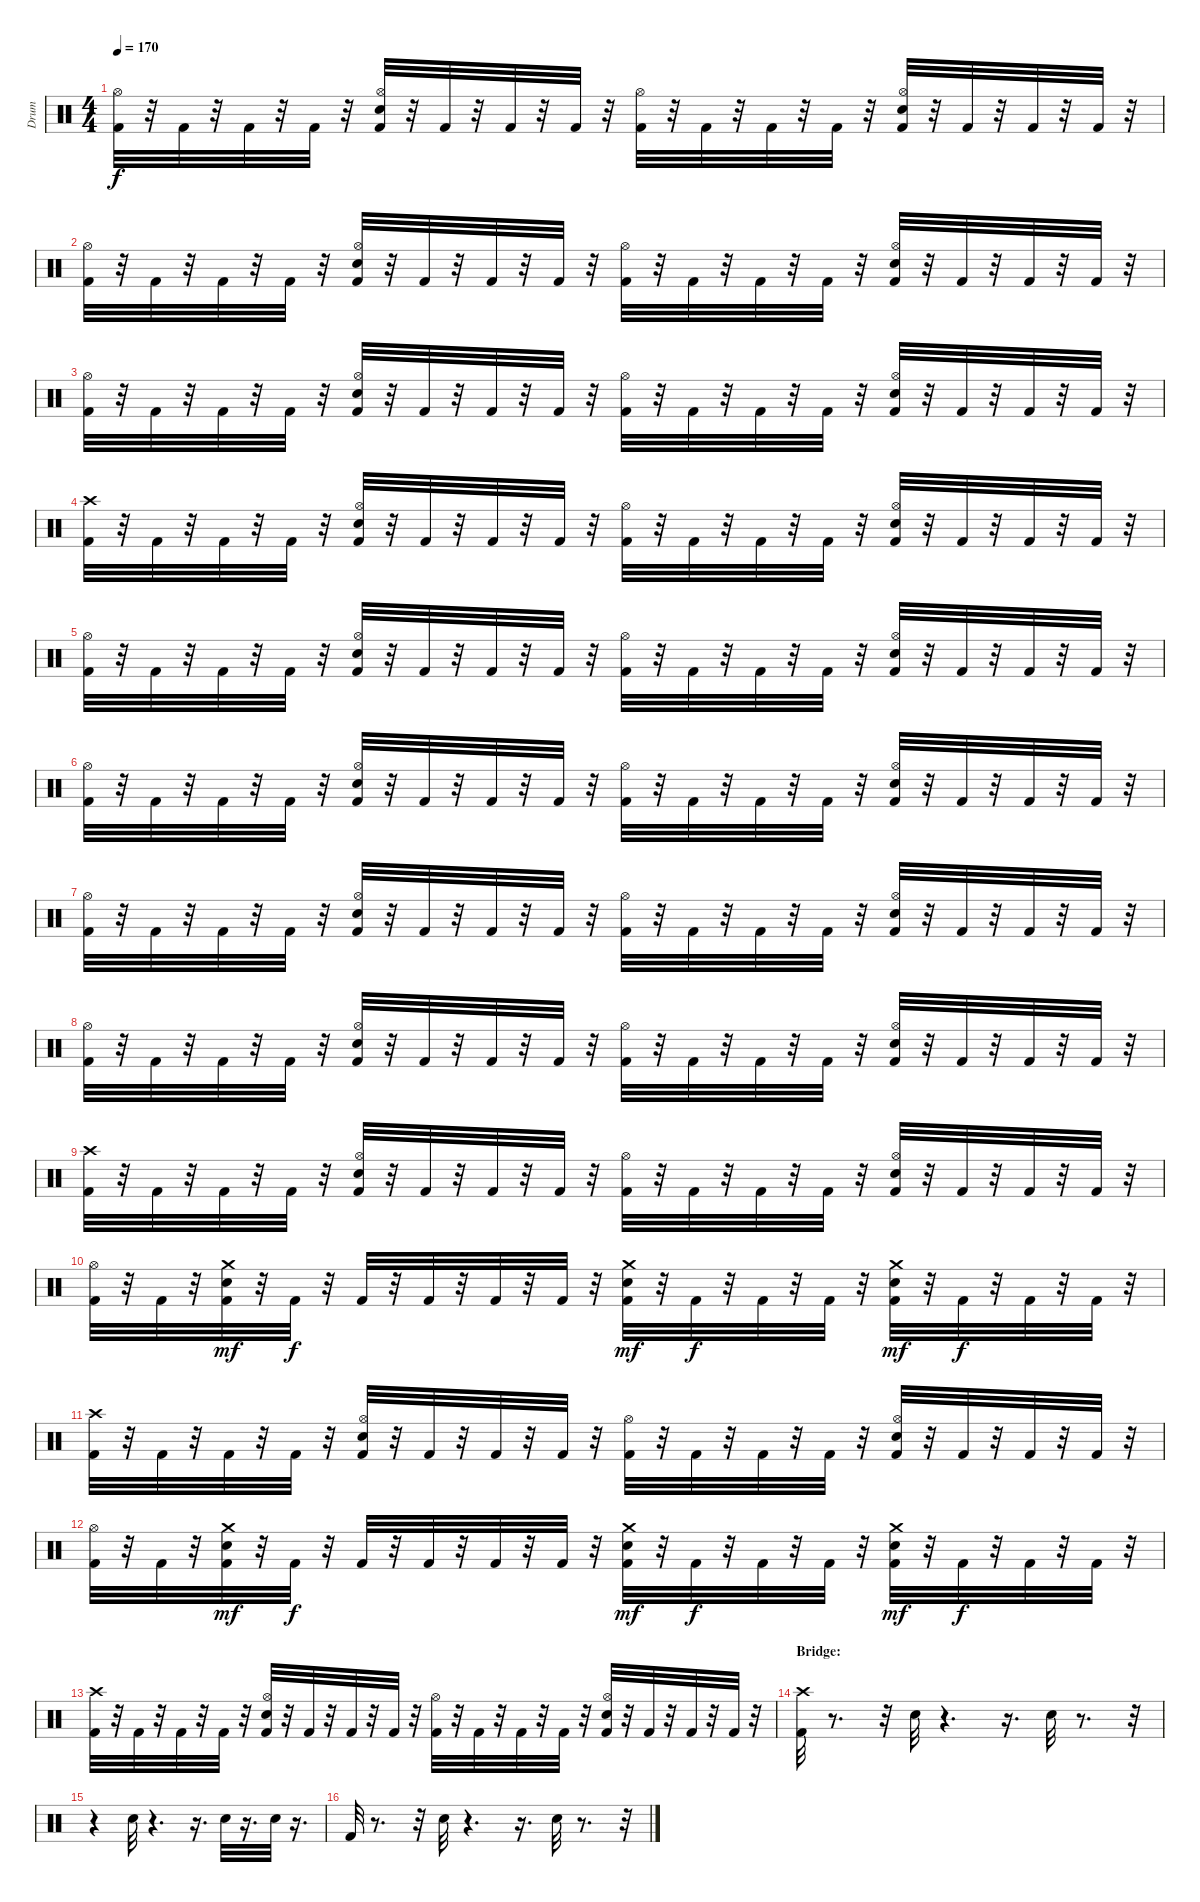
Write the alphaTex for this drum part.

\track ("Drum" "Drum") {instrument percussion}
\staff {score}
\articulation defaults
\ts (4 4)
\tempo 170
\clef neutral
\ks c
("Kick (hit) 2" "Hi-Hat (open)").32{dy f} r.32 "Kick (hit) 2".32 r.32 "Kick (hit) 2".32 r.32 "Kick (hit) 2".32 r.32 ("Kick (hit) 2" "Snare (hit) 2" "Hi-Hat (open)").32 r.32 "Kick (hit) 2".32 r.32 "Kick (hit) 2".32 r.32 "Kick (hit) 2".32 r.32 ("Kick (hit) 2" "Hi-Hat (open)").32 r.32 "Kick (hit) 2".32 r.32 "Kick (hit) 2".32 r.32 "Kick (hit) 2".32 r.32 ("Kick (hit) 2" "Snare (hit) 2" "Hi-Hat (open)").32 r.32 "Kick (hit) 2".32 r.32 "Kick (hit) 2".32 r.32 "Kick (hit) 2".32 r.32 |
("Kick (hit) 2" "Hi-Hat (open)").32 r.32 "Kick (hit) 2".32 r.32 "Kick (hit) 2".32 r.32 "Kick (hit) 2".32 r.32 ("Kick (hit) 2" "Hi-Hat (open)" "Snare (hit) 2").32 r.32 "Kick (hit) 2".32 r.32 "Kick (hit) 2".32 r.32 "Kick (hit) 2".32 r.32 ("Kick (hit) 2" "Hi-Hat (open)").32 r.32 "Kick (hit) 2".32 r.32 "Kick (hit) 2".32 r.32 "Kick (hit) 2".32 r.32 ("Kick (hit) 2" "Hi-Hat (open)" "Snare (hit) 2").32 r.32 "Kick (hit) 2".32 r.32 "Kick (hit) 2".32 r.32 "Kick (hit) 2".32 r.32 |
("Kick (hit) 2" "Hi-Hat (open)").32 r.32 "Kick (hit) 2".32 r.32 "Kick (hit) 2".32 r.32 "Kick (hit) 2".32 r.32 ("Kick (hit) 2" "Snare (hit) 2" "Hi-Hat (open)").32 r.32 "Kick (hit) 2".32 r.32 "Kick (hit) 2".32 r.32 "Kick (hit) 2".32 r.32 ("Kick (hit) 2" "Hi-Hat (open)").32 r.32 "Kick (hit) 2".32 r.32 "Kick (hit) 2".32 r.32 "Kick (hit) 2".32 r.32 ("Kick (hit) 2" "Snare (hit) 2" "Hi-Hat (open)").32 r.32 "Kick (hit) 2".32 r.32 "Kick (hit) 2".32 r.32 "Kick (hit) 2".32 r.32 |
("Kick (hit) 2" "Crash high (hit)").32 r.32 "Kick (hit) 2".32 r.32 "Kick (hit) 2".32 r.32 "Kick (hit) 2".32 r.32 ("Kick (hit) 2" "Snare (hit) 2" "Hi-Hat (open)").32 r.32 "Kick (hit) 2".32 r.32 "Kick (hit) 2".32 r.32 "Kick (hit) 2".32 r.32 ("Kick (hit) 2" "Hi-Hat (open)").32 r.32 "Kick (hit) 2".32 r.32 "Kick (hit) 2".32 r.32 "Kick (hit) 2".32 r.32 ("Kick (hit) 2" "Snare (hit) 2" "Hi-Hat (open)").32 r.32 "Kick (hit) 2".32 r.32 "Kick (hit) 2".32 r.32 "Kick (hit) 2".32 r.32 |
("Kick (hit) 2" "Hi-Hat (open)").32 r.32 "Kick (hit) 2".32 r.32 "Kick (hit) 2".32 r.32 "Kick (hit) 2".32 r.32 ("Kick (hit) 2" "Hi-Hat (open)" "Snare (hit) 2").32 r.32 "Kick (hit) 2".32 r.32 "Kick (hit) 2".32 r.32 "Kick (hit) 2".32 r.32 ("Kick (hit) 2" "Hi-Hat (open)").32 r.32 "Kick (hit) 2".32 r.32 "Kick (hit) 2".32 r.32 "Kick (hit) 2".32 r.32 ("Kick (hit) 2" "Hi-Hat (open)" "Snare (hit) 2").32 r.32 "Kick (hit) 2".32 r.32 "Kick (hit) 2".32 r.32 "Kick (hit) 2".32 r.32 |
("Kick (hit) 2" "Hi-Hat (open)").32 r.32 "Kick (hit) 2".32 r.32 "Kick (hit) 2".32 r.32 "Kick (hit) 2".32 r.32 ("Kick (hit) 2" "Hi-Hat (open)" "Snare (hit) 2").32 r.32 "Kick (hit) 2".32 r.32 "Kick (hit) 2".32 r.32 "Kick (hit) 2".32 r.32 ("Kick (hit) 2" "Hi-Hat (open)").32 r.32 "Kick (hit) 2".32 r.32 "Kick (hit) 2".32 r.32 "Kick (hit) 2".32 r.32 ("Kick (hit) 2" "Hi-Hat (open)" "Snare (hit) 2").32 r.32 "Kick (hit) 2".32 r.32 "Kick (hit) 2".32 r.32 "Kick (hit) 2".32 r.32 |
("Kick (hit) 2" "Hi-Hat (open)").32 r.32 "Kick (hit) 2".32 r.32 "Kick (hit) 2".32 r.32 "Kick (hit) 2".32 r.32 ("Kick (hit) 2" "Snare (hit) 2" "Hi-Hat (open)").32 r.32 "Kick (hit) 2".32 r.32 "Kick (hit) 2".32 r.32 "Kick (hit) 2".32 r.32 ("Kick (hit) 2" "Hi-Hat (open)").32 r.32 "Kick (hit) 2".32 r.32 "Kick (hit) 2".32 r.32 "Kick (hit) 2".32 r.32 ("Kick (hit) 2" "Snare (hit) 2" "Hi-Hat (open)").32 r.32 "Kick (hit) 2".32 r.32 "Kick (hit) 2".32 r.32 "Kick (hit) 2".32 r.32 |
("Kick (hit) 2" "Hi-Hat (open)").32 r.32 "Kick (hit) 2".32 r.32 "Kick (hit) 2".32 r.32 "Kick (hit) 2".32 r.32 ("Kick (hit) 2" "Snare (hit) 2" "Hi-Hat (open)").32 r.32 "Kick (hit) 2".32 r.32 "Kick (hit) 2".32 r.32 "Kick (hit) 2".32 r.32 ("Kick (hit) 2" "Hi-Hat (open)").32 r.32 "Kick (hit) 2".32 r.32 "Kick (hit) 2".32 r.32 "Kick (hit) 2".32 r.32 ("Kick (hit) 2" "Snare (hit) 2" "Hi-Hat (open)").32 r.32 "Kick (hit) 2".32 r.32 "Kick (hit) 2".32 r.32 "Kick (hit) 2".32 r.32 |
("Kick (hit) 2" "Crash high (hit)").32 r.32 "Kick (hit) 2".32 r.32 "Kick (hit) 2".32 r.32 "Kick (hit) 2".32 r.32 ("Kick (hit) 2" "Hi-Hat (open)" "Snare (hit) 2").32 r.32 "Kick (hit) 2".32 r.32 "Kick (hit) 2".32 r.32 "Kick (hit) 2".32 r.32 ("Kick (hit) 2" "Hi-Hat (open)").32 r.32 "Kick (hit) 2".32 r.32 "Kick (hit) 2".32 r.32 "Kick (hit) 2".32 r.32 ("Kick (hit) 2" "Hi-Hat (open)" "Snare (hit) 2").32 r.32 "Kick (hit) 2".32 r.32 "Kick (hit) 2".32 r.32 "Kick (hit) 2".32 r.32 |
("Kick (hit) 2" "Hi-Hat (open)").32 r.32 "Kick (hit) 2".32 r.32 ("Crash medium (hit)" "Snare (hit) 2" "Kick (hit) 2").32{dy mf} r.32 "Kick (hit) 2".32{dy f} r.32 "Kick (hit) 2".32 r.32 "Kick (hit) 2".32 r.32 "Kick (hit) 2".32 r.32 "Kick (hit) 2".32 r.32 ("Crash medium (hit)" "Snare (hit) 2" "Kick (hit) 2").32{dy mf} r.32 "Kick (hit) 2".32{dy f} r.32 "Kick (hit) 2".32 r.32 "Kick (hit) 2".32 r.32 ("Crash medium (hit)" "Snare (hit) 2" "Kick (hit) 2").32{dy mf} r.32 "Kick (hit) 2".32{dy f} r.32 "Kick (hit) 2".32 r.32 "Kick (hit) 2".32 r.32 |
("Kick (hit) 2" "Crash high (hit)").32 r.32 "Kick (hit) 2".32 r.32 "Kick (hit) 2".32 r.32 "Kick (hit) 2".32 r.32 ("Kick (hit) 2" "Snare (hit) 2" "Hi-Hat (open)").32 r.32 "Kick (hit) 2".32 r.32 "Kick (hit) 2".32 r.32 "Kick (hit) 2".32 r.32 ("Kick (hit) 2" "Hi-Hat (open)").32 r.32 "Kick (hit) 2".32 r.32 "Kick (hit) 2".32 r.32 "Kick (hit) 2".32 r.32 ("Kick (hit) 2" "Snare (hit) 2" "Hi-Hat (open)").32 r.32 "Kick (hit) 2".32 r.32 "Kick (hit) 2".32 r.32 "Kick (hit) 2".32 r.32 |
("Hi-Hat (open)" "Kick (hit) 2").32 r.32 "Kick (hit) 2".32 r.32 ("Crash medium (hit)" "Snare (hit) 2" "Kick (hit) 2").32{dy mf} r.32 "Kick (hit) 2".32{dy f} r.32 "Kick (hit) 2".32 r.32 "Kick (hit) 2".32 r.32 "Kick (hit) 2".32 r.32 "Kick (hit) 2".32 r.32 ("Crash medium (hit)" "Snare (hit) 2" "Kick (hit) 2").32{dy mf} r.32 "Kick (hit) 2".32{dy f} r.32 "Kick (hit) 2".32 r.32 "Kick (hit) 2".32 r.32 ("Crash medium (hit)" "Kick (hit) 2" "Snare (hit) 2").32{dy mf} r.32 "Kick (hit) 2".32{dy f} r.32 "Kick (hit) 2".32 r.32 "Kick (hit) 2".32 r.32 |
("Crash high (hit)" "Kick (hit) 2").32 r.32 "Kick (hit) 2".32 r.32 "Kick (hit) 2".32 r.32 "Kick (hit) 2".32 r.32 ("Kick (hit) 2" "Hi-Hat (open)" "Snare (hit) 2").32 r.32 "Kick (hit) 2".32 r.32 "Kick (hit) 2".32 r.32 "Kick (hit) 2".32 r.32 ("Kick (hit) 2" "Hi-Hat (open)").32 r.32 "Kick (hit) 2".32 r.32 "Kick (hit) 2".32 r.32 "Kick (hit) 2".32 r.32 ("Kick (hit) 2" "Hi-Hat (open)" "Snare (hit) 2").32 r.32 "Kick (hit) 2".32 r.32 "Kick (hit) 2".32 r.32 "Kick (hit) 2".32 r.32 |
\section ("" "Bridge:")
("Kick (hit) 2" "Crash high (hit)").32 r.8{d} r.32 "Snare (hit) 2".32 r.4{d} r.16{d} "Snare (hit) 2".32 r.8{d} r.32 |
r.4 "Snare (hit) 2".32 r.4{d} r.16{d} "Snare (hit) 2".32 r.16{d} "Snare (hit) 2".32 r.16{d} |
"Kick (hit) 2".32 r.8{d} r.32 "Snare (hit) 2".32 r.4{d} r.16{d} "Snare (hit) 2".32 r.8{d} r.32
